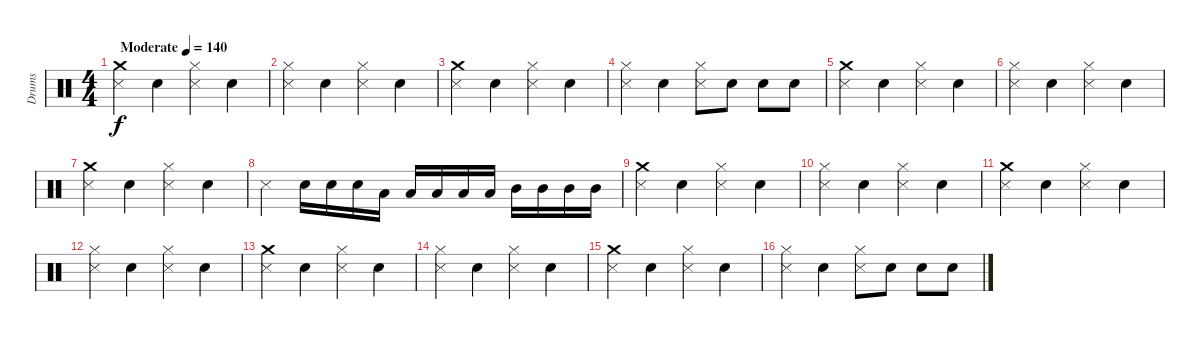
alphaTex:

\track ("Drums" "Drums") {instrument percussion}
\staff {score}
\articulation defaults
\ts (4 4)
\tempo (140 "Moderate")
\clef neutral
\ks c
("Crash medium (hit)" "Metronome (hit)").4{dy f} "Electric Snare (hit)".4 ("Hi-Hat (closed)" "Metronome (hit)").4 "Electric Snare (hit)".4 |
("Hi-Hat (closed)" "Metronome (hit)").4 "Electric Snare (hit)".4 ("Hi-Hat (closed)" "Metronome (hit)").4 "Electric Snare (hit)".4 |
("Crash medium (hit)" "Metronome (hit)").4 "Electric Snare (hit)".4 ("Hi-Hat (closed)" "Metronome (hit)").4 "Electric Snare (hit)".4 |
("Hi-Hat (closed)" "Metronome (hit)").4 "Electric Snare (hit)".4 ("Hi-Hat (closed)" "Metronome (hit)").8 "Electric Snare (hit)".8 "Electric Snare (hit)".8 "Electric Snare (hit)".8 |
("Crash medium (hit)" "Metronome (hit)").4 "Electric Snare (hit)".4 ("Hi-Hat (closed)" "Metronome (hit)").4 "Electric Snare (hit)".4 |
("Hi-Hat (closed)" "Metronome (hit)").4 "Electric Snare (hit)".4 ("Hi-Hat (closed)" "Metronome (hit)").4 "Electric Snare (hit)".4 |
("Crash medium (hit)" "Metronome (hit)").4 "Electric Snare (hit)".4 ("Hi-Hat (closed)" "Metronome (hit)").4 "Electric Snare (hit)".4 |
"Metronome (hit)".4 "Electric Snare (hit)".16 "Electric Snare (hit)".16 "Electric Snare (hit)".16 "Low Tom (hit)".16 "Low Tom (hit)".16 "Low Tom (hit)".16 "Low Tom (hit)".16 "Low Tom (hit)".16 "Mid Tom (hit)".16 "Mid Tom (hit)".16 "Mid Tom (hit)".16 "Mid Tom (hit)".16 |
("Crash medium (hit)" "Metronome (hit)").4 "Electric Snare (hit)".4 ("Hi-Hat (closed)" "Metronome (hit)").4 "Electric Snare (hit)".4 |
("Hi-Hat (closed)" "Metronome (hit)").4 "Electric Snare (hit)".4 ("Hi-Hat (closed)" "Metronome (hit)").4 "Electric Snare (hit)".4 |
("Crash medium (hit)" "Metronome (hit)").4 "Electric Snare (hit)".4 ("Hi-Hat (closed)" "Metronome (hit)").4 "Electric Snare (hit)".4 |
("Hi-Hat (closed)" "Metronome (hit)").4 "Electric Snare (hit)".4 ("Hi-Hat (closed)" "Metronome (hit)").4 "Electric Snare (hit)".4 |
("Crash medium (hit)" "Metronome (hit)").4 "Electric Snare (hit)".4 ("Hi-Hat (closed)" "Metronome (hit)").4 "Electric Snare (hit)".4 |
("Hi-Hat (closed)" "Metronome (hit)").4 "Electric Snare (hit)".4 ("Hi-Hat (closed)" "Metronome (hit)").4 "Electric Snare (hit)".4 |
("Crash medium (hit)" "Metronome (hit)").4 "Electric Snare (hit)".4 ("Hi-Hat (closed)" "Metronome (hit)").4 "Electric Snare (hit)".4 |
("Hi-Hat (closed)" "Metronome (hit)").4 "Electric Snare (hit)".4 ("Hi-Hat (closed)" "Metronome (hit)").8 "Electric Snare (hit)".8 "Electric Snare (hit)".8 "Electric Snare (hit)".8
